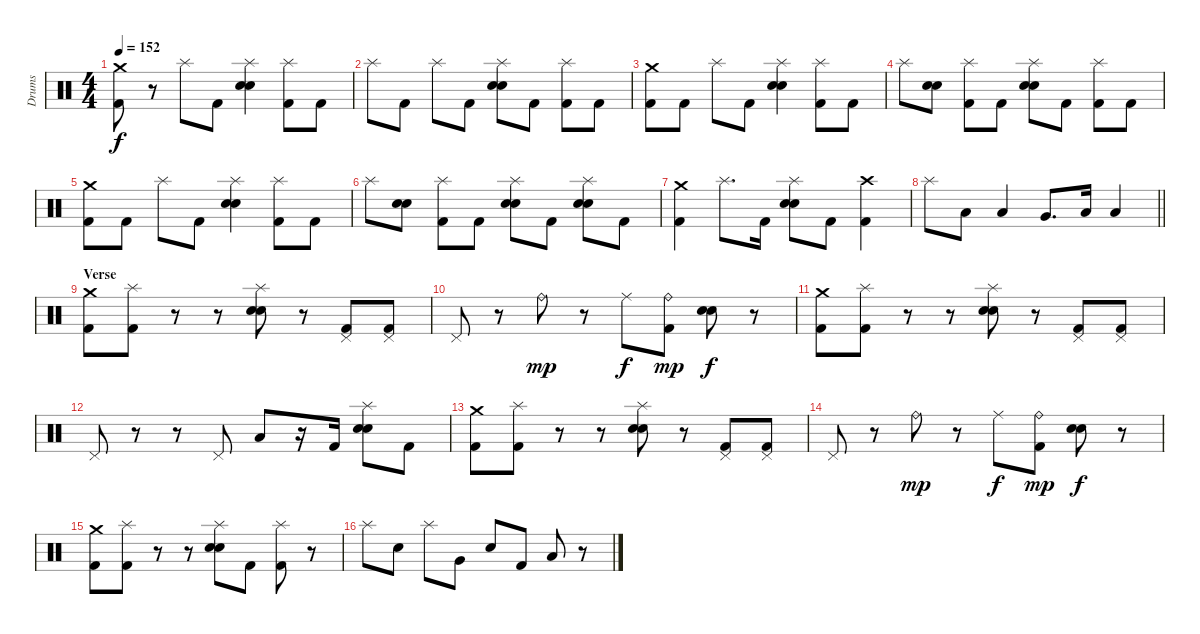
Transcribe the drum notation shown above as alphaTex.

\track ("Drums" "Drums") {instrument percussion}
\staff {score}
\articulation defaults
\ts (4 4)
\tempo 152
\clef neutral
\ks c
("Crash medium (hit)" "Kick (hit) 2").8{dy f} r.8 "Splash (hit)".8 "Kick (hit) 2".8 ("Splash (hit)" "Electric Snare (hit)" "Snare (hit) 2").4 ("Splash (hit)" "Kick (hit) 2").8 "Kick (hit) 2".8 |
"Splash (hit)".8 "Kick (hit) 2".8 "Splash (hit)".8 "Kick (hit) 2".8 ("Splash (hit)" "Electric Snare (hit)" "Snare (hit) 2").8 "Kick (hit) 2".8 ("Splash (hit)" "Kick (hit) 2").8 "Kick (hit) 2".8 |
("Crash medium (hit)" "Kick (hit) 2").8 "Kick (hit) 2".8 "Splash (hit)".8 "Kick (hit) 2".8 ("Splash (hit)" "Electric Snare (hit)" "Snare (hit) 2").4 ("Splash (hit)" "Kick (hit) 2").8 "Kick (hit) 2".8 |
"Splash (hit)".8 ("Electric Snare (hit)" "Snare (hit) 2").8 ("Splash (hit)" "Kick (hit) 2").8 "Kick (hit) 2".8 ("Splash (hit)" "Electric Snare (hit)" "Snare (hit) 2").8 "Kick (hit) 2".8 ("Splash (hit)" "Kick (hit) 2").8 "Kick (hit) 2".8 |
("Crash medium (hit)" "Kick (hit) 2").8 "Kick (hit) 2".8 "Splash (hit)".8 "Kick (hit) 2".8 ("Splash (hit)" "Electric Snare (hit)" "Snare (hit) 2").4 ("Splash (hit)" "Kick (hit) 2").8 "Kick (hit) 2".8 |
"Splash (hit)".8 ("Electric Snare (hit)" "Snare (hit) 2").8 ("Splash (hit)" "Kick (hit) 2").8 "Kick (hit) 2".8 ("Splash (hit)" "Electric Snare (hit)" "Snare (hit) 2").8 "Kick (hit) 2".8 ("Splash (hit)" "Electric Snare (hit)" "Snare (hit) 2").8 "Kick (hit) 2".8 |
("Crash medium (hit)" "Kick (hit) 2").4 "Splash (hit)".8{d} "Kick (hit) 2".16 ("Splash (hit)" "Electric Snare (hit)" "Snare (hit) 2").8 "Kick (hit) 2".8 ("Crash high (hit)" "Kick (hit) 2").4 |
\barLineRight lightlight "Splash (hit)".8 "Low Tom (hit)".8 "Low Tom (hit)".4 "Very Low Tom (hit)".8{d} "Low Floor Tom (hit)".16 "Low Floor Tom (hit)".4
|
\section ("" "Verse")
("Crash medium (hit)" "Kick (hit) 2").8 ("Splash (hit)" "Kick (hit) 2").8 r.8 r.8 ("Splash (hit)" "Electric Snare (hit)" "Snare (hit) 2").8 r.8 ("Pedal Hi-Hat (hit)" "Kick (hit) 2").8 ("Pedal Hi-Hat (hit)" "Kick (hit) 2").8 |
"Pedal Hi-Hat (hit)".8 r.8 "Ride (bell)".8{dy mp} r.8 "Ride (middle)".8{dy f} ("Ride (bell)" "Kick (hit) 2").8{dy mp} ("Electric Snare (hit)" "Snare (hit) 2").8{dy f} r.8 |
("Crash medium (hit)" "Kick (hit) 2").8 ("Splash (hit)" "Kick (hit) 2").8 r.8 r.8 ("Splash (hit)" "Electric Snare (hit)" "Snare (hit) 2").8 r.8 ("Pedal Hi-Hat (hit)" "Kick (hit) 2").8 ("Pedal Hi-Hat (hit)" "Kick (hit) 2").8 |
"Pedal Hi-Hat (hit)".8 r.8 r.8 "Pedal Hi-Hat (hit)".8 "Low Tom (hit)".8 r.16 "Kick (hit) 2".16 ("Splash (hit)" "Electric Snare (hit)" "Snare (hit) 2").8 "Kick (hit) 2".8 |
("Crash medium (hit)" "Kick (hit) 2").8 ("Splash (hit)" "Kick (hit) 2").8 r.8 r.8 ("Splash (hit)" "Electric Snare (hit)" "Snare (hit) 2").8 r.8 ("Pedal Hi-Hat (hit)" "Kick (hit) 2").8 ("Pedal Hi-Hat (hit)" "Kick (hit) 2").8 |
"Pedal Hi-Hat (hit)".8 r.8 "Ride (bell)".8{dy mp} r.8 "Ride (middle)".8{dy f} ("Ride (bell)" "Kick (hit) 2").8{dy mp} ("Electric Snare (hit)" "Snare (hit) 2").8{dy f} r.8 |
("Crash medium (hit)" "Kick (hit) 2").8 ("Splash (hit)" "Kick (hit) 2").8 r.8 r.8 ("Splash (hit)" "Electric Snare (hit)" "Snare (hit) 2").8 "Kick (hit) 2".8 ("Splash (hit)" "Kick (hit) 2").8 r.8 |
"Splash (hit)".8 "Electric Snare (hit)".8 "Splash (hit)".8 "Very Low Tom (hit)".8 "Electric Snare (hit)".8 "Kick (hit) 2".8 "Low Tom (hit)".8 r.8
